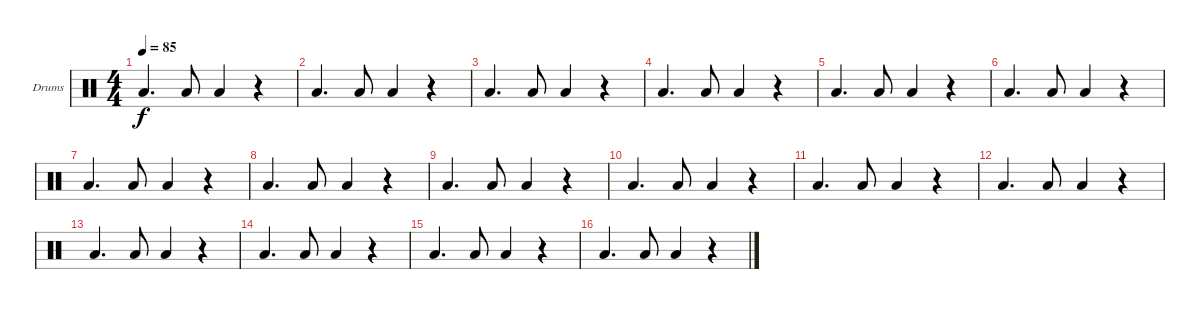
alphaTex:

\bracketExtendMode groupsimilarinstruments
\firstSystemTrackNameOrientation horizontal
\otherSystemsTrackNameOrientation horizontal
\track ("Drumkit" "Drums") {instrument percussion}
\staff {score}
\articulation defaults
\ts (4 4)
\tempo 85
\clef neutral
\ks c "Low Tom (hit)".4{d dy f} "Low Tom (hit)".8 "Low Tom (hit)".4
r.4 |
"Low Tom (hit)".4{d} "Low Tom (hit)".8 "Low Tom (hit)".4 r.4 |
"Low Tom (hit)".4{d} "Low Tom (hit)".8 "Low Tom (hit)".4 r.4 |
"Low Tom (hit)".4{d} "Low Tom (hit)".8 "Low Tom (hit)".4 r.4 |
"Low Tom (hit)".4{d} "Low Tom (hit)".8 "Low Tom (hit)".4 r.4 |
"Low Tom (hit)".4{d} "Low Tom (hit)".8 "Low Tom (hit)".4 r.4 |
"Low Tom (hit)".4{d} "Low Tom (hit)".8 "Low Tom (hit)".4 r.4 |
"Low Tom (hit)".4{d} "Low Tom (hit)".8 "Low Tom (hit)".4 r.4 |
"Low Tom (hit)".4{d} "Low Tom (hit)".8 "Low Tom (hit)".4 r.4 |
"Low Tom (hit)".4{d} "Low Tom (hit)".8 "Low Tom (hit)".4 r.4 |
"Low Tom (hit)".4{d} "Low Tom (hit)".8 "Low Tom (hit)".4 r.4 |
"Low Tom (hit)".4{d} "Low Tom (hit)".8 "Low Tom (hit)".4 r.4 |
"Low Tom (hit)".4{d} "Low Tom (hit)".8 "Low Tom (hit)".4 r.4 |
"Low Tom (hit)".4{d} "Low Tom (hit)".8 "Low Tom (hit)".4 r.4 |
"Low Tom (hit)".4{d} "Low Tom (hit)".8 "Low Tom (hit)".4 r.4 |
"Low Tom (hit)".4{d} "Low Tom (hit)".8 "Low Tom (hit)".4 r.4
